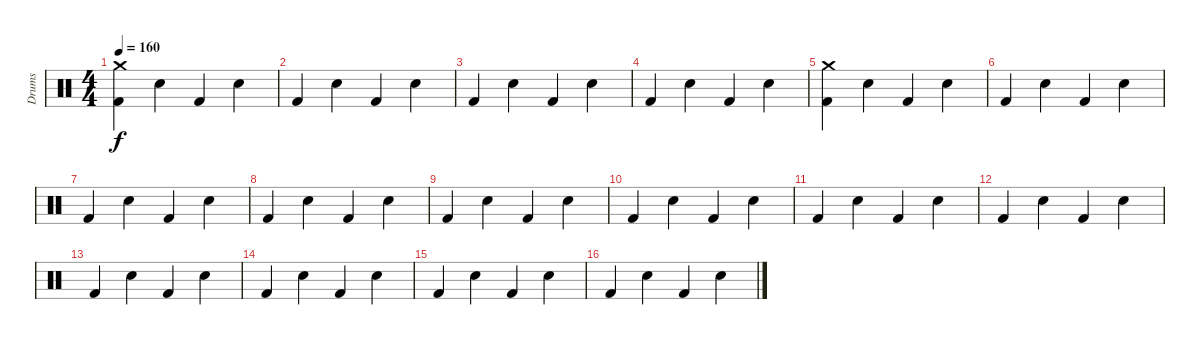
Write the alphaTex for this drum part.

\track ("Drums" "Drums") {instrument percussion}
\staff {score}
\articulation defaults
\ts (4 4)
\tempo 160
\clef neutral
\ks c
("Kick (hit) 2" "Crash medium (hit)").4{dy f} "Snare (hit) 2".4 "Kick (hit) 2".4 "Snare (hit) 2".4 |
"Kick (hit) 2".4 "Snare (hit) 2".4 "Kick (hit) 2".4 "Snare (hit) 2".4 |
"Kick (hit) 2".4 "Snare (hit) 2".4 "Kick (hit) 2".4 "Snare (hit) 2".4 |
"Kick (hit) 2".4 "Snare (hit) 2".4 "Kick (hit) 2".4 "Snare (hit) 2".4 |
("Kick (hit) 2" "Crash medium (hit)").4 "Snare (hit) 2".4 "Kick (hit) 2".4 "Snare (hit) 2".4 |
"Kick (hit) 2".4 "Snare (hit) 2".4 "Kick (hit) 2".4 "Snare (hit) 2".4 |
"Kick (hit) 2".4 "Snare (hit) 2".4 "Kick (hit) 2".4 "Snare (hit) 2".4 |
"Kick (hit) 2".4 "Snare (hit) 2".4 "Kick (hit) 2".4 "Snare (hit) 2".4 |
"Kick (hit) 2".4 "Snare (hit) 2".4 "Kick (hit) 2".4 "Snare (hit) 2".4 |
"Kick (hit) 2".4 "Snare (hit) 2".4 "Kick (hit) 2".4 "Snare (hit) 2".4 |
"Kick (hit) 2".4 "Snare (hit) 2".4 "Kick (hit) 2".4 "Snare (hit) 2".4 |
"Kick (hit) 2".4 "Snare (hit) 2".4 "Kick (hit) 2".4 "Snare (hit) 2".4 |
"Kick (hit) 2".4 "Snare (hit) 2".4 "Kick (hit) 2".4 "Snare (hit) 2".4 |
"Kick (hit) 2".4 "Snare (hit) 2".4 "Kick (hit) 2".4 "Snare (hit) 2".4 |
"Kick (hit) 2".4 "Snare (hit) 2".4 "Kick (hit) 2".4 "Snare (hit) 2".4 |
"Kick (hit) 2".4 "Snare (hit) 2".4 "Kick (hit) 2".4 "Snare (hit) 2".4
